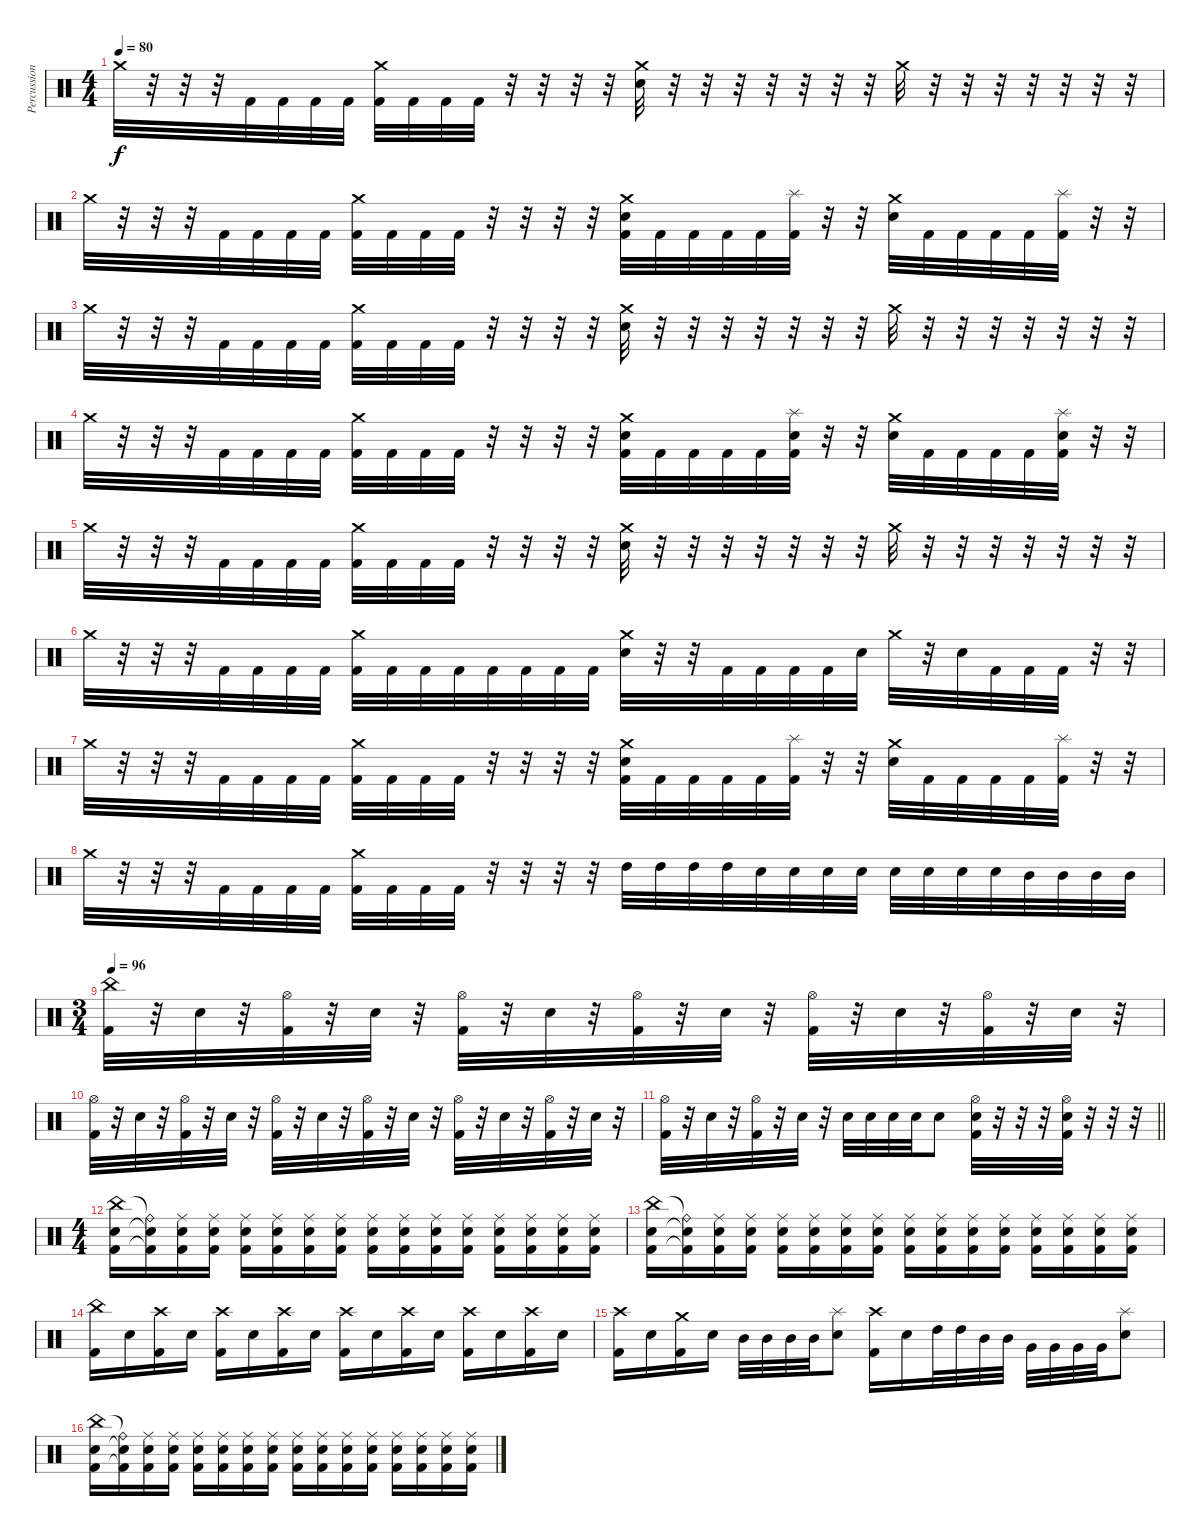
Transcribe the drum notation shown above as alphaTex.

\track ("Percussion [Optional]" "Percussion") {instrument percussion}
\staff {score}
\articulation defaults
\ts (4 4)
\tempo 80
\clef neutral
\ks c "Crash medium (hit)".32{dy f}
r.32 r.32 r.32 "Kick (hit) 2".32 "Kick (hit) 2".32 "Kick (hit) 2".32 "Kick (hit) 2".32 ("Kick (hit) 2" "Crash medium (hit)").32 "Kick (hit) 2".32 "Kick (hit) 2".32 "Kick (hit) 2".32 r.32 r.32 r.32 r.32 ("Electric Snare (hit)" "Crash medium (hit)").32 r.32 r.32 r.32 r.32 r.32 r.32 r.32 "Crash medium (hit)".32 r.32 r.32 r.32 r.32 r.32 r.32 r.32 |
"Crash medium (hit)".32 r.32 r.32 r.32 "Kick (hit) 2".32 "Kick (hit) 2".32 "Kick (hit) 2".32 "Kick (hit) 2".32 ("Kick (hit) 2" "Crash medium (hit)").32 "Kick (hit) 2".32 "Kick (hit) 2".32 "Kick (hit) 2".32 r.32 r.32 r.32 r.32 ("Kick (hit) 2" "Electric Snare (hit)" "Crash medium (hit)").32 "Kick (hit) 2".32 "Kick (hit) 2".32 "Kick (hit) 2".32 "Kick (hit) 2".32 ("Kick (hit) 2" "Splash (hit)").32 r.32 r.32 ("Electric Snare (hit)" "Crash medium (hit)").32 "Kick (hit) 2".32 "Kick (hit) 2".32 "Kick (hit) 2".32 "Kick (hit) 2".32 ("Kick (hit) 2" "Splash (hit)").32 r.32 r.32 |
"Crash medium (hit)".32 r.32 r.32 r.32 "Kick (hit) 2".32 "Kick (hit) 2".32 "Kick (hit) 2".32 "Kick (hit) 2".32 ("Kick (hit) 2" "Crash medium (hit)").32 "Kick (hit) 2".32 "Kick (hit) 2".32 "Kick (hit) 2".32 r.32 r.32 r.32 r.32 ("Electric Snare (hit)" "Crash medium (hit)").32 r.32 r.32 r.32 r.32 r.32 r.32 r.32 "Crash medium (hit)".32 r.32 r.32 r.32 r.32 r.32 r.32 r.32 |
"Crash medium (hit)".32 r.32 r.32 r.32 "Kick (hit) 2".32 "Kick (hit) 2".32 "Kick (hit) 2".32 "Kick (hit) 2".32 ("Kick (hit) 2" "Crash medium (hit)").32 "Kick (hit) 2".32 "Kick (hit) 2".32 "Kick (hit) 2".32 r.32 r.32 r.32 r.32 ("Kick (hit) 2" "Electric Snare (hit)" "Crash medium (hit)").32 "Kick (hit) 2".32 "Kick (hit) 2".32 "Kick (hit) 2".32 "Kick (hit) 2".32 ("Kick (hit) 2" "Electric Snare (hit)" "Splash (hit)").32 r.32 r.32 ("Electric Snare (hit)" "Crash medium (hit)").32 "Kick (hit) 2".32 "Kick (hit) 2".32 "Kick (hit) 2".32 "Kick (hit) 2".32 ("Kick (hit) 2" "Splash (hit)" "Electric Snare (hit)").32 r.32 r.32 |
"Crash medium (hit)".32 r.32 r.32 r.32 "Kick (hit) 2".32 "Kick (hit) 2".32 "Kick (hit) 2".32 "Kick (hit) 2".32 ("Kick (hit) 2" "Crash medium (hit)").32 "Kick (hit) 2".32 "Kick (hit) 2".32 "Kick (hit) 2".32 r.32 r.32 r.32 r.32 ("Electric Snare (hit)" "Crash medium (hit)").32 r.32 r.32 r.32 r.32 r.32 r.32 r.32 "Crash medium (hit)".32 r.32 r.32 r.32 r.32 r.32 r.32 r.32 |
"Crash medium (hit)".32 r.32 r.32 r.32 "Kick (hit) 2".32 "Kick (hit) 2".32 "Kick (hit) 2".32 "Kick (hit) 2".32 ("Kick (hit) 2" "Crash medium (hit)").32 "Kick (hit) 2".32 "Kick (hit) 2".32 "Kick (hit) 2".32 "Kick (hit) 2".32 "Kick (hit) 2".32 "Kick (hit) 2".32 "Kick (hit) 2".32 ("Electric Snare (hit)" "Crash medium (hit)").32 r.32 r.32 "Kick (hit) 2".32 "Kick (hit) 2".32 "Kick (hit) 2".32 "Kick (hit) 2".32 "Electric Snare (hit)".32 "Crash medium (hit)".32 r.32 "Electric Snare (hit)".32 "Kick (hit) 2".32 "Kick (hit) 2".32 "Kick (hit) 2".32 r.32 r.32 |
"Crash medium (hit)".32 r.32 r.32 r.32 "Kick (hit) 2".32 "Kick (hit) 2".32 "Kick (hit) 2".32 "Kick (hit) 2".32 ("Kick (hit) 2" "Crash medium (hit)").32 "Kick (hit) 2".32 "Kick (hit) 2".32 "Kick (hit) 2".32 r.32 r.32 r.32 r.32 ("Kick (hit) 2" "Electric Snare (hit)" "Crash medium (hit)").32 "Kick (hit) 2".32 "Kick (hit) 2".32 "Kick (hit) 2".32 "Kick (hit) 2".32 ("Kick (hit) 2" "Splash (hit)").32 r.32 r.32 ("Electric Snare (hit)" "Crash medium (hit)").32 "Kick (hit) 2".32 "Kick (hit) 2".32 "Kick (hit) 2".32 "Kick (hit) 2".32 ("Kick (hit) 2" "Splash (hit)").32 r.32 r.32 |
"Crash medium (hit)".32 r.32 r.32 r.32 "Kick (hit) 2".32 "Kick (hit) 2".32 "Kick (hit) 2".32 "Kick (hit) 2".32 ("Kick (hit) 2" "Crash medium (hit)").32 "Kick (hit) 2".32 "Kick (hit) 2".32 "Kick (hit) 2".32 r.32 r.32 r.32 r.32 "High Tom (hit)".32 "High Tom (hit)".32 "High Tom (hit)".32 "High Tom (hit)".32 "Electric Snare (hit)".32 "Electric Snare (hit)".32 "Electric Snare (hit)".32 "Electric Snare (hit)".32 "Electric Snare (hit)".32 "Electric Snare (hit)".32 "Electric Snare (hit)".32 "Electric Snare (hit)".32 "Mid Tom (hit)".32 "Mid Tom (hit)".32 "Mid Tom (hit)".32 "Mid Tom (hit)".32 |
\ts (3 4)
\tempo 96
("China (hit)" "Kick (hit) 2").32 r.32 "Electric Snare (hit)".32 r.32 ("Hi-Hat (open)" "Kick (hit) 2").32 r.32 "Electric Snare (hit)".32 r.32 ("Hi-Hat (open)" "Kick (hit) 2").32 r.32 "Electric Snare (hit)".32 r.32 ("Hi-Hat (open)" "Kick (hit) 2").32 r.32 "Electric Snare (hit)".32 r.32 ("Hi-Hat (open)" "Kick (hit) 2").32 r.32 "Electric Snare (hit)".32 r.32 ("Hi-Hat (open)" "Kick (hit) 2").32 r.32 "Electric Snare (hit)".32 r.32 |
("Kick (hit) 2" "Hi-Hat (open)").32 r.32 "Electric Snare (hit)".32 r.32 ("Kick (hit) 2" "Hi-Hat (open)").32 r.32 "Electric Snare (hit)".32 r.32 ("Kick (hit) 2" "Hi-Hat (open)").32 r.32 "Electric Snare (hit)".32 r.32 ("Kick (hit) 2" "Hi-Hat (open)").32 r.32 "Electric Snare (hit)".32 r.32 ("Kick (hit) 2" "Hi-Hat (open)").32 r.32 "Electric Snare (hit)".32 r.32 ("Kick (hit) 2" "Hi-Hat (open)").32 r.32 "Electric Snare (hit)".32 r.32 |
\barLineRight lightlight
("Kick (hit) 2" "Hi-Hat (open)").32 r.32 "Electric Snare (hit)".32 r.32 ("Kick (hit) 2" "Hi-Hat (open)").32 r.32 "Electric Snare (hit)".32 r.32 "Electric Snare (hit)".32 "Electric Snare (hit)".32 "Electric Snare (hit)".32 "Electric Snare (hit)".32 "Electric Snare (hit)".8 ("Kick (hit) 2" "Hi-Hat (open)" "Electric Snare (hit)").32 r.32 r.32 r.32 ("Kick (hit) 2" "Electric Snare (hit)" "Hi-Hat (open)").32 r.32 r.32 r.32 |
\ts (4 4)
("China (hit)" "Electric Snare (hit)" "Kick (hit) 2").16 ("Ride (bell)"{t} "Electric Snare (hit)"{t} "Kick (hit) 2"{t}).16 ("Ride (middle)" "Electric Snare (hit)" "Kick (hit) 2").16 ("Ride (middle)" "Electric Snare (hit)" "Kick (hit) 2").16 ("Ride (middle)" "Electric Snare (hit)" "Kick (hit) 2").16 ("Ride (middle)" "Electric Snare (hit)" "Kick (hit) 2").16 ("Ride (middle)" "Electric Snare (hit)" "Kick (hit) 2").16 ("Ride (middle)" "Electric Snare (hit)" "Kick (hit) 2").16 ("Ride (middle)" "Electric Snare (hit)" "Kick (hit) 2").16 ("Ride (middle)" "Electric Snare (hit)" "Kick (hit) 2").16 ("Ride (middle)" "Electric Snare (hit)" "Kick (hit) 2").16 ("Ride (middle)" "Electric Snare (hit)" "Kick (hit) 2").16 ("Ride (middle)" "Electric Snare (hit)" "Kick (hit) 2").16 ("Ride (middle)" "Electric Snare (hit)" "Kick (hit) 2").16 ("Ride (middle)" "Electric Snare (hit)" "Kick (hit) 2").16 ("Ride (middle)" "Electric Snare (hit)" "Kick (hit) 2").16 |
("China (hit)" "Electric Snare (hit)" "Kick (hit) 2").16 ("Ride (bell)"{t} "Electric Snare (hit)"{t} "Kick (hit) 2"{t}).16 ("Ride (middle)" "Electric Snare (hit)" "Kick (hit) 2").16 ("Ride (middle)" "Electric Snare (hit)" "Kick (hit) 2").16 ("Ride (middle)" "Electric Snare (hit)" "Kick (hit) 2").16 ("Ride (middle)" "Electric Snare (hit)" "Kick (hit) 2").16 ("Ride (middle)" "Electric Snare (hit)" "Kick (hit) 2").16 ("Ride (middle)" "Electric Snare (hit)" "Kick (hit) 2").16 ("Ride (middle)" "Electric Snare (hit)" "Kick (hit) 2").16 ("Ride (middle)" "Electric Snare (hit)" "Kick (hit) 2").16 ("Ride (middle)" "Electric Snare (hit)" "Kick (hit) 2").16 ("Ride (middle)" "Electric Snare (hit)" "Kick (hit) 2").16 ("Ride (middle)" "Electric Snare (hit)" "Kick (hit) 2").16 ("Ride (middle)" "Electric Snare (hit)" "Kick (hit) 2").16 ("Ride (middle)" "Electric Snare (hit)" "Kick (hit) 2").16 ("Ride (middle)" "Electric Snare (hit)" "Kick (hit) 2").16 |
("China (hit)" "Kick (hit) 2").16 "Electric Snare (hit)".16 ("Crash high (hit)" "Kick (hit) 2").16 "Electric Snare (hit)".16 ("Crash high (hit)" "Kick (hit) 2").16 "Electric Snare (hit)".16 ("Crash high (hit)" "Kick (hit) 2").16 "Electric Snare (hit)".16 ("Crash high (hit)" "Kick (hit) 2").16 "Electric Snare (hit)".16 ("Crash high (hit)" "Kick (hit) 2").16 "Electric Snare (hit)".16 ("Crash high (hit)" "Kick (hit) 2").16 "Electric Snare (hit)".16 ("Crash high (hit)" "Kick (hit) 2").16 "Electric Snare (hit)".16 |
("Crash high (hit)" "Kick (hit) 2").16 "Electric Snare (hit)".16 ("Crash medium (hit)" "Kick (hit) 2").16 "Electric Snare (hit)".16 "Mid Tom (hit)".32 "Mid Tom (hit)".32 "Mid Tom (hit)".32 "Mid Tom (hit)".32 ("Electric Snare (hit)" "Splash (hit)").8 ("Crash high (hit)" "Kick (hit) 2").16 "Electric Snare (hit)".16 "High Tom (hit)".32 "High Tom (hit)".32 "Mid Tom (hit)".32 "Mid Tom (hit)".32 "Very Low Tom (hit)".32 "Very Low Tom (hit)".32 "Very Low Tom (hit)".32 "Very Low Tom (hit)".32 ("Splash (hit)" "Electric Snare (hit)").8 |
("China (hit)" "Electric Snare (hit)" "Kick (hit) 2").16 ("Ride (bell)"{t} "Electric Snare (hit)"{t} "Kick (hit) 2"{t}).16 ("Ride (middle)" "Electric Snare (hit)" "Kick (hit) 2").16 ("Ride (middle)" "Electric Snare (hit)" "Kick (hit) 2").16 ("Ride (middle)" "Electric Snare (hit)" "Kick (hit) 2").16 ("Ride (middle)" "Electric Snare (hit)" "Kick (hit) 2").16 ("Ride (middle)" "Electric Snare (hit)" "Kick (hit) 2").16 ("Ride (middle)" "Electric Snare (hit)" "Kick (hit) 2").16 ("Ride (middle)" "Electric Snare (hit)" "Kick (hit) 2").16 ("Ride (middle)" "Electric Snare (hit)" "Kick (hit) 2").16 ("Ride (middle)" "Electric Snare (hit)" "Kick (hit) 2").16 ("Ride (middle)" "Electric Snare (hit)" "Kick (hit) 2").16 ("Ride (middle)" "Electric Snare (hit)" "Kick (hit) 2").16 ("Ride (middle)" "Electric Snare (hit)" "Kick (hit) 2").16 ("Ride (middle)" "Electric Snare (hit)" "Kick (hit) 2").16 ("Ride (middle)" "Electric Snare (hit)" "Kick (hit) 2").16
